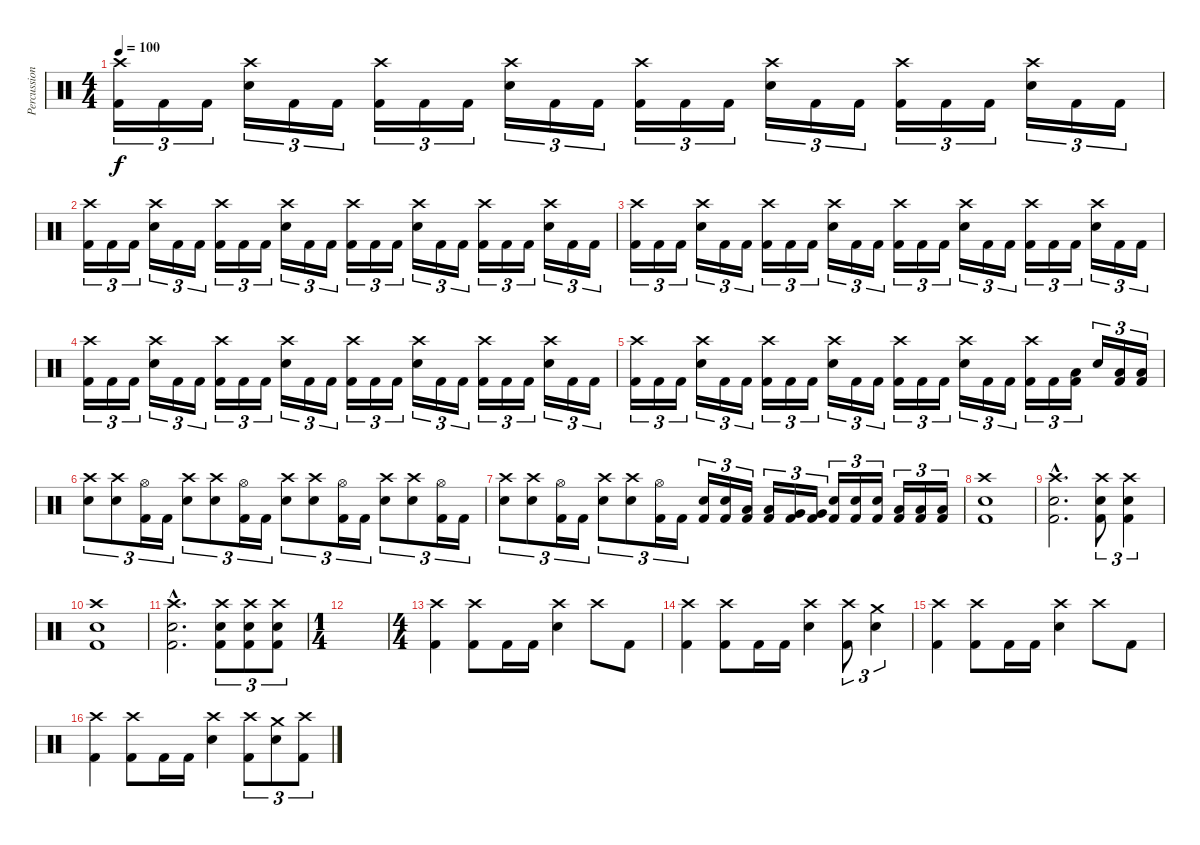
\track ("Percussion" "Percussion") {instrument percussion}
\staff {score}
\articulation defaults
\ts (4 4)
\tempo 100
\clef neutral
\ks c
("Crash high (hit)" "Kick (hit) 2").16{tu (3 2) dy f} "Kick (hit) 2".16{tu (3 2)} "Kick (hit) 2".16{tu (3 2)} ("Crash high (hit)" "Electric Snare (hit)").16{tu (3 2)} "Kick (hit) 2".16{tu (3 2)} "Kick (hit) 2".16{tu (3 2)} ("Crash high (hit)" "Kick (hit) 2").16{tu (3 2)} "Kick (hit) 2".16{tu (3 2)} "Kick (hit) 2".16{tu (3 2)} ("Crash high (hit)" "Electric Snare (hit)").16{tu (3 2)} "Kick (hit) 2".16{tu (3 2)} "Kick (hit) 2".16{tu (3 2)} ("Crash high (hit)" "Kick (hit) 2").16{tu (3 2)} "Kick (hit) 2".16{tu (3 2)} "Kick (hit) 2".16{tu (3 2)} ("Crash high (hit)" "Electric Snare (hit)").16{tu (3 2)} "Kick (hit) 2".16{tu (3 2)} "Kick (hit) 2".16{tu (3 2)} ("Crash high (hit)" "Kick (hit) 2").16{tu (3 2)} "Kick (hit) 2".16{tu (3 2)} "Kick (hit) 2".16{tu (3 2)} ("Crash high (hit)" "Electric Snare (hit)").16{tu (3 2)} "Kick (hit) 2".16{tu (3 2)} "Kick (hit) 2".16{tu (3 2)} |
("Crash high (hit)" "Kick (hit) 2").16{tu (3 2)} "Kick (hit) 2".16{tu (3 2)} "Kick (hit) 2".16{tu (3 2)} ("Crash high (hit)" "Electric Snare (hit)").16{tu (3 2)} "Kick (hit) 2".16{tu (3 2)} "Kick (hit) 2".16{tu (3 2)} ("Crash high (hit)" "Kick (hit) 2").16{tu (3 2)} "Kick (hit) 2".16{tu (3 2)} "Kick (hit) 2".16{tu (3 2)} ("Crash high (hit)" "Electric Snare (hit)").16{tu (3 2)} "Kick (hit) 2".16{tu (3 2)} "Kick (hit) 2".16{tu (3 2)} ("Crash high (hit)" "Kick (hit) 2").16{tu (3 2)} "Kick (hit) 2".16{tu (3 2)} "Kick (hit) 2".16{tu (3 2)} ("Crash high (hit)" "Electric Snare (hit)").16{tu (3 2)} "Kick (hit) 2".16{tu (3 2)} "Kick (hit) 2".16{tu (3 2)} ("Crash high (hit)" "Kick (hit) 2").16{tu (3 2)} "Kick (hit) 2".16{tu (3 2)} "Kick (hit) 2".16{tu (3 2)} ("Crash high (hit)" "Electric Snare (hit)").16{tu (3 2)} "Kick (hit) 2".16{tu (3 2)} "Kick (hit) 2".16{tu (3 2)} |
("Crash high (hit)" "Kick (hit) 2").16{tu (3 2)} "Kick (hit) 2".16{tu (3 2)} "Kick (hit) 2".16{tu (3 2)} ("Crash high (hit)" "Electric Snare (hit)").16{tu (3 2)} "Kick (hit) 2".16{tu (3 2)} "Kick (hit) 2".16{tu (3 2)} ("Crash high (hit)" "Kick (hit) 2").16{tu (3 2)} "Kick (hit) 2".16{tu (3 2)} "Kick (hit) 2".16{tu (3 2)} ("Crash high (hit)" "Electric Snare (hit)").16{tu (3 2)} "Kick (hit) 2".16{tu (3 2)} "Kick (hit) 2".16{tu (3 2)} ("Crash high (hit)" "Kick (hit) 2").16{tu (3 2)} "Kick (hit) 2".16{tu (3 2)} "Kick (hit) 2".16{tu (3 2)} ("Crash high (hit)" "Electric Snare (hit)").16{tu (3 2)} "Kick (hit) 2".16{tu (3 2)} "Kick (hit) 2".16{tu (3 2)} ("Crash high (hit)" "Kick (hit) 2").16{tu (3 2)} "Kick (hit) 2".16{tu (3 2)} "Kick (hit) 2".16{tu (3 2)} ("Crash high (hit)" "Electric Snare (hit)").16{tu (3 2)} "Kick (hit) 2".16{tu (3 2)} "Kick (hit) 2".16{tu (3 2)} |
("Crash high (hit)" "Kick (hit) 2").16{tu (3 2)} "Kick (hit) 2".16{tu (3 2)} "Kick (hit) 2".16{tu (3 2)} ("Crash high (hit)" "Electric Snare (hit)").16{tu (3 2)} "Kick (hit) 2".16{tu (3 2)} "Kick (hit) 2".16{tu (3 2)} ("Crash high (hit)" "Kick (hit) 2").16{tu (3 2)} "Kick (hit) 2".16{tu (3 2)} "Kick (hit) 2".16{tu (3 2)} ("Crash high (hit)" "Electric Snare (hit)").16{tu (3 2)} "Kick (hit) 2".16{tu (3 2)} "Kick (hit) 2".16{tu (3 2)} ("Crash high (hit)" "Kick (hit) 2").16{tu (3 2)} "Kick (hit) 2".16{tu (3 2)} "Kick (hit) 2".16{tu (3 2)} ("Crash high (hit)" "Electric Snare (hit)").16{tu (3 2)} "Kick (hit) 2".16{tu (3 2)} "Kick (hit) 2".16{tu (3 2)} ("Crash high (hit)" "Kick (hit) 2").16{tu (3 2)} "Kick (hit) 2".16{tu (3 2)} "Kick (hit) 2".16{tu (3 2)} ("Crash high (hit)" "Electric Snare (hit)").16{tu (3 2)} "Kick (hit) 2".16{tu (3 2)} "Kick (hit) 2".16{tu (3 2)} |
("Crash high (hit)" "Kick (hit) 2").16{tu (3 2)} "Kick (hit) 2".16{tu (3 2)} "Kick (hit) 2".16{tu (3 2)} ("Crash high (hit)" "Electric Snare (hit)").16{tu (3 2)} "Kick (hit) 2".16{tu (3 2)} "Kick (hit) 2".16{tu (3 2)} ("Crash high (hit)" "Kick (hit) 2").16{tu (3 2)} "Kick (hit) 2".16{tu (3 2)} "Kick (hit) 2".16{tu (3 2)} ("Crash high (hit)" "Electric Snare (hit)").16{tu (3 2)} "Kick (hit) 2".16{tu (3 2)} "Kick (hit) 2".16{tu (3 2)} ("Crash high (hit)" "Kick (hit) 2").16{tu (3 2)} "Kick (hit) 2".16{tu (3 2)} "Kick (hit) 2".16{tu (3 2)} ("Crash high (hit)" "Electric Snare (hit)").16{tu (3 2)} "Kick (hit) 2".16{tu (3 2)} "Kick (hit) 2".16{tu (3 2)} ("Crash high (hit)" "Kick (hit) 2").16{tu (3 2)} "Kick (hit) 2".16{tu (3 2)} ("Low Tom (hit)" "Kick (hit) 2").16{tu (3 2)} "Electric Snare (hit)".16{tu (3 2)} ("Low Tom (hit)" "Kick (hit) 2").16{tu (3 2)} ("Low Tom (hit)" "Kick (hit) 2").16{tu (3 2)} |
("Crash high (hit)" "Electric Snare (hit)").8{tu (3 2)} ("Crash high (hit)" "Electric Snare (hit)").8{tu (3 2)} ("Hi-Hat (open)" "Kick (hit) 2").16{tu (3 2)} "Kick (hit) 2".16{tu (3 2)} ("Crash high (hit)" "Electric Snare (hit)").8{tu (3 2)} ("Crash high (hit)" "Electric Snare (hit)").8{tu (3 2)} ("Hi-Hat (open)" "Kick (hit) 2").16{tu (3 2)} "Kick (hit) 2".16{tu (3 2)} ("Crash high (hit)" "Electric Snare (hit)").8{tu (3 2)} ("Crash high (hit)" "Electric Snare (hit)").8{tu (3 2)} ("Hi-Hat (open)" "Kick (hit) 2").16{tu (3 2)} "Kick (hit) 2".16{tu (3 2)} ("Crash high (hit)" "Electric Snare (hit)").8{tu (3 2)} ("Crash high (hit)" "Electric Snare (hit)").8{tu (3 2)} ("Hi-Hat (open)" "Kick (hit) 2").16{tu (3 2)} "Kick (hit) 2".16{tu (3 2)} |
("Crash high (hit)" "Electric Snare (hit)").8{tu (3 2)} ("Crash high (hit)" "Electric Snare (hit)").8{tu (3 2)} ("Hi-Hat (open)" "Kick (hit) 2").16{tu (3 2)} "Kick (hit) 2".16{tu (3 2)} ("Crash high (hit)" "Electric Snare (hit)").8{tu (3 2)} ("Crash high (hit)" "Electric Snare (hit)").8{tu (3 2)} ("Hi-Hat (open)" "Kick (hit) 2").16{tu (3 2)} "Kick (hit) 2".16{tu (3 2)} ("Electric Snare (hit)" "Kick (hit) 2").16{tu (3 2)} ("Electric Snare (hit)" "Kick (hit) 2").16{tu (3 2)} ("Low Tom (hit)" "Kick (hit) 2").16{tu (3 2)} ("Low Tom (hit)" "Kick (hit) 2").16{tu (3 2)} ("Very Low Tom (hit)" "Kick (hit) 2").16{tu (3 2)} ("Very Low Tom (hit)" "Kick (hit) 2").16{tu (3 2)} ("Electric Snare (hit)" "Kick (hit) 2").16{tu (3 2)} ("Electric Snare (hit)" "Kick (hit) 2").16{tu (3 2)} ("Electric Snare (hit)" "Kick (hit) 2").16{tu (3 2)} ("Low Tom (hit)" "Kick (hit) 2").16{tu (3 2)} ("Low Tom (hit)" "Kick (hit) 2").16{tu (3 2)} ("Low Tom (hit)" "Kick (hit) 2").16{tu (3 2)} |
("Crash high (hit)" "Electric Snare (hit)" "Kick (hit) 2").1 |
("Crash high (hit)"{hac} "Electric Snare (hit)"{hac} "Kick (hit) 2"{hac}).2{d} ("Crash high (hit)" "Kick (hit) 2" "Electric Snare (hit)").8{tu (3 2)} ("Crash high (hit)" "Kick (hit) 2" "Electric Snare (hit)").4{tu (3 2)} |
("Crash high (hit)" "Electric Snare (hit)" "Kick (hit) 2").1 |
("Crash high (hit)"{hac} "Electric Snare (hit)"{hac} "Kick (hit) 2"{hac}).2{d} ("Crash high (hit)" "Kick (hit) 2" "Electric Snare (hit)").8{tu (3 2)} ("Crash high (hit)" "Kick (hit) 2" "Electric Snare (hit)").8{tu (3 2)} ("Crash high (hit)" "Electric Snare (hit)" "Kick (hit) 2").8{tu (3 2)} |
\ts (1 4)
|
\ts (4 4)
("Crash high (hit)" "Kick (hit) 2").4 ("Crash high (hit)" "Kick (hit) 2").8 "Kick (hit) 2".16 "Kick (hit) 2".16 ("Crash high (hit)" "Electric Snare (hit)").4 "Crash high (hit)".8 "Kick (hit) 2".8 |
("Crash high (hit)" "Kick (hit) 2").4 ("Crash high (hit)" "Kick (hit) 2").8 "Kick (hit) 2".16 "Kick (hit) 2".16 ("Crash high (hit)" "Electric Snare (hit)").4 ("Crash high (hit)" "Kick (hit) 2").8{tu (3 2)} ("Crash medium (hit)" "Electric Snare (hit)").4{tu (3 2)} |
("Crash high (hit)" "Kick (hit) 2").4 ("Crash high (hit)" "Kick (hit) 2").8 "Kick (hit) 2".16 "Kick (hit) 2".16 ("Crash high (hit)" "Electric Snare (hit)").4 "Crash high (hit)".8 "Kick (hit) 2".8 |
("Crash high (hit)" "Kick (hit) 2").4 ("Crash high (hit)" "Kick (hit) 2").8 "Kick (hit) 2".16 "Kick (hit) 2".16 ("Crash high (hit)" "Electric Snare (hit)").4 ("Crash high (hit)" "Kick (hit) 2").8{tu (3 2)} ("Crash medium (hit)" "Electric Snare (hit)").8{tu (3 2)} ("Crash high (hit)" "Kick (hit) 2").8{tu (3 2)}
